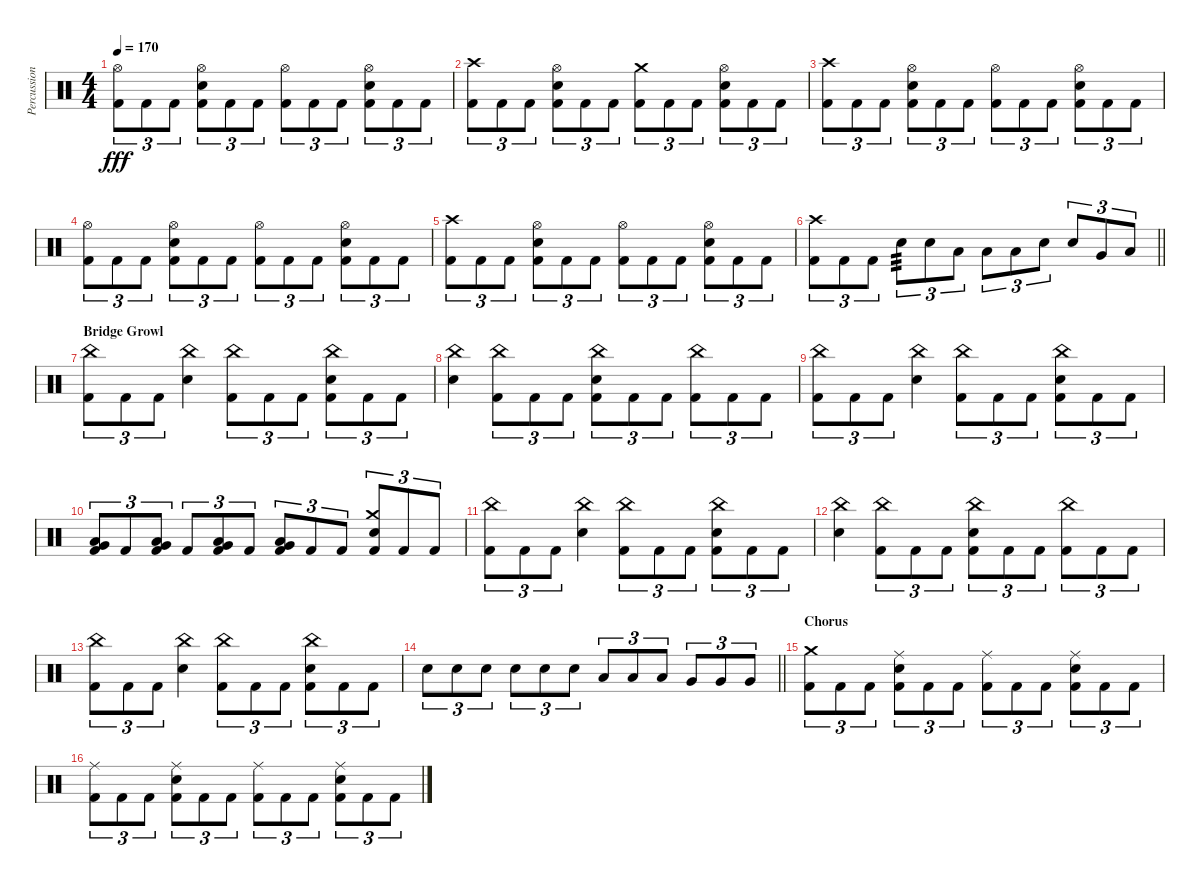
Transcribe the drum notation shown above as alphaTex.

\track ("Percussion" "Percussion") {instrument percussion}
\staff {score}
\articulation defaults
\ts (4 4)
\tempo 170
\clef neutral
\ks c
("Hi-Hat (open)" "Kick (hit) 2").8{tu (3 2) dy fff} "Kick (hit) 2".8{tu (3 2)} "Kick (hit) 2".8{tu (3 2)} ("Hi-Hat (open)" "Snare (hit) 2" "Kick (hit) 2").8{tu (3 2)} "Kick (hit) 2".8{tu (3 2)} "Kick (hit) 2".8{tu (3 2)} ("Hi-Hat (open)" "Kick (hit) 2").8{tu (3 2)} "Kick (hit) 2".8{tu (3 2)} "Kick (hit) 2".8{tu (3 2)} ("Hi-Hat (open)" "Snare (hit) 2" "Kick (hit) 2").8{tu (3 2)} "Kick (hit) 2".8{tu (3 2)} "Kick (hit) 2".8{tu (3 2)} |
("Crash high (hit)" "Kick (hit) 2").8{tu (3 2)} "Kick (hit) 2".8{tu (3 2)} "Kick (hit) 2".8{tu (3 2)} ("Hi-Hat (open)" "Snare (hit) 2" "Kick (hit) 2").8{tu (3 2)} "Kick (hit) 2".8{tu (3 2)} "Kick (hit) 2".8{tu (3 2)} ("Crash medium (hit)" "Kick (hit) 2").8{tu (3 2)} "Kick (hit) 2".8{tu (3 2)} "Kick (hit) 2".8{tu (3 2)} ("Hi-Hat (open)" "Snare (hit) 2" "Kick (hit) 2").8{tu (3 2)} "Kick (hit) 2".8{tu (3 2)} "Kick (hit) 2".8{tu (3 2)} |
("Crash high (hit)" "Kick (hit) 2").8{tu (3 2)} "Kick (hit) 2".8{tu (3 2)} "Kick (hit) 2".8{tu (3 2)} ("Hi-Hat (open)" "Snare (hit) 2" "Kick (hit) 2").8{tu (3 2)} "Kick (hit) 2".8{tu (3 2)} "Kick (hit) 2".8{tu (3 2)} ("Hi-Hat (open)" "Kick (hit) 2").8{tu (3 2)} "Kick (hit) 2".8{tu (3 2)} "Kick (hit) 2".8{tu (3 2)} ("Hi-Hat (open)" "Snare (hit) 2" "Kick (hit) 2").8{tu (3 2)} "Kick (hit) 2".8{tu (3 2)} "Kick (hit) 2".8{tu (3 2)} |
("Hi-Hat (open)" "Kick (hit) 2").8{tu (3 2)} "Kick (hit) 2".8{tu (3 2)} "Kick (hit) 2".8{tu (3 2)} ("Hi-Hat (open)" "Snare (hit) 2" "Kick (hit) 2").8{tu (3 2)} "Kick (hit) 2".8{tu (3 2)} "Kick (hit) 2".8{tu (3 2)} ("Hi-Hat (open)" "Kick (hit) 2").8{tu (3 2)} "Kick (hit) 2".8{tu (3 2)} "Kick (hit) 2".8{tu (3 2)} ("Hi-Hat (open)" "Snare (hit) 2" "Kick (hit) 2").8{tu (3 2)} "Kick (hit) 2".8{tu (3 2)} "Kick (hit) 2".8{tu (3 2)} |
("Crash high (hit)" "Kick (hit) 2").8{tu (3 2)} "Kick (hit) 2".8{tu (3 2)} "Kick (hit) 2".8{tu (3 2)} ("Hi-Hat (open)" "Snare (hit) 2" "Kick (hit) 2").8{tu (3 2)} "Kick (hit) 2".8{tu (3 2)} "Kick (hit) 2".8{tu (3 2)} ("Hi-Hat (open)" "Kick (hit) 2").8{tu (3 2)} "Kick (hit) 2".8{tu (3 2)} "Kick (hit) 2".8{tu (3 2)} ("Hi-Hat (open)" "Snare (hit) 2" "Kick (hit) 2").8{tu (3 2)} "Kick (hit) 2".8{tu (3 2)} "Kick (hit) 2".8{tu (3 2)} |
\barLineRight lightlight
("Crash high (hit)" "Kick (hit) 2").8{tu (3 2)} "Kick (hit) 2".8{tu (3 2)} "Kick (hit) 2".8{tu (3 2)} "Electric Snare (hit)".8{tu (3 2) tp 3} "Electric Snare (hit)".8{tu (3 2)} "Low Tom (hit)".8{tu (3 2)} "Low Tom (hit)".8{tu (3 2)} "Low Tom (hit)".8{tu (3 2)} "Electric Snare (hit)".8{tu (3 2)} "Electric Snare (hit)".8{tu (3 2)} "Very Low Tom (hit)".8{tu (3 2)} "Low Tom (hit)".8{tu (3 2)} |
\section ("" "Bridge Growl")
("China (hit)" "Kick (hit) 2").8{tu (3 2)} "Kick (hit) 2".8{tu (3 2)} "Kick (hit) 2".8{tu (3 2)} ("China (hit)" "Electric Snare (hit)").4 ("China (hit)" "Kick (hit) 2").8{tu (3 2)} "Kick (hit) 2".8{tu (3 2)} "Kick (hit) 2".8{tu (3 2)} ("China (hit)" "Electric Snare (hit)" "Kick (hit) 2").8{tu (3 2)} "Kick (hit) 2".8{tu (3 2)} "Kick (hit) 2".8{tu (3 2)} |
("China (hit)" "Electric Snare (hit)").4 ("China (hit)" "Kick (hit) 2").8{tu (3 2)} "Kick (hit) 2".8{tu (3 2)} "Kick (hit) 2".8{tu (3 2)} ("China (hit)" "Electric Snare (hit)" "Kick (hit) 2").8{tu (3 2)} "Kick (hit) 2".8{tu (3 2)} "Kick (hit) 2".8{tu (3 2)} ("China (hit)" "Kick (hit) 2").8{tu (3 2)} "Kick (hit) 2".8{tu (3 2)} "Kick (hit) 2".8{tu (3 2)} |
("China (hit)" "Kick (hit) 2").8{tu (3 2)} "Kick (hit) 2".8{tu (3 2)} "Kick (hit) 2".8{tu (3 2)} ("China (hit)" "Electric Snare (hit)").4 ("China (hit)" "Kick (hit) 2").8{tu (3 2)} "Kick (hit) 2".8{tu (3 2)} "Kick (hit) 2".8{tu (3 2)} ("China (hit)" "Electric Snare (hit)" "Kick (hit) 2").8{tu (3 2)} "Kick (hit) 2".8{tu (3 2)} "Kick (hit) 2".8{tu (3 2)} |
("Low Floor Tom (hit)" "Very Low Tom (hit)" "Kick (hit) 2").8{tu (3 2)} "Kick (hit) 2".8{tu (3 2)} ("Very Low Tom (hit)" "Low Floor Tom (hit)" "Kick (hit) 2").8{tu (3 2)} "Kick (hit) 2".8{tu (3 2)} ("Very Low Tom (hit)" "Low Floor Tom (hit)" "Kick (hit) 2").8{tu (3 2)} "Kick (hit) 2".8{tu (3 2)} ("Very Low Tom (hit)" "Low Floor Tom (hit)" "Kick (hit) 2").8{tu (3 2)} "Kick (hit) 2".8{tu (3 2)} "Kick (hit) 2".8{tu (3 2)} ("Crash medium (hit)" "Electric Snare (hit)" "Kick (hit) 2").8{tu (3 2)} "Kick (hit) 2".8{tu (3 2)} "Kick (hit) 2".8{tu (3 2)} |
("China (hit)" "Kick (hit) 2").8{tu (3 2)} "Kick (hit) 2".8{tu (3 2)} "Kick (hit) 2".8{tu (3 2)} ("China (hit)" "Electric Snare (hit)").4 ("China (hit)" "Kick (hit) 2").8{tu (3 2)} "Kick (hit) 2".8{tu (3 2)} "Kick (hit) 2".8{tu (3 2)} ("China (hit)" "Electric Snare (hit)" "Kick (hit) 2").8{tu (3 2)} "Kick (hit) 2".8{tu (3 2)} "Kick (hit) 2".8{tu (3 2)} |
("China (hit)" "Electric Snare (hit)").4 ("China (hit)" "Kick (hit) 2").8{tu (3 2)} "Kick (hit) 2".8{tu (3 2)} "Kick (hit) 2".8{tu (3 2)} ("China (hit)" "Electric Snare (hit)" "Kick (hit) 2").8{tu (3 2)} "Kick (hit) 2".8{tu (3 2)} "Kick (hit) 2".8{tu (3 2)} ("China (hit)" "Kick (hit) 2").8{tu (3 2)} "Kick (hit) 2".8{tu (3 2)} "Kick (hit) 2".8{tu (3 2)} |
("China (hit)" "Kick (hit) 2").8{tu (3 2)} "Kick (hit) 2".8{tu (3 2)} "Kick (hit) 2".8{tu (3 2)} ("China (hit)" "Electric Snare (hit)").4 ("China (hit)" "Kick (hit) 2").8{tu (3 2)} "Kick (hit) 2".8{tu (3 2)} "Kick (hit) 2".8{tu (3 2)} ("China (hit)" "Electric Snare (hit)" "Kick (hit) 2").8{tu (3 2)} "Kick (hit) 2".8{tu (3 2)} "Kick (hit) 2".8{tu (3 2)} |
\barLineRight lightlight "Electric Snare (hit)".8{tu (3 2)} "Electric Snare (hit)".8{tu (3 2)} "Electric Snare (hit)".8{tu (3 2)} "Electric Snare (hit)".8{tu (3 2)} "Electric Snare (hit)".8{tu (3 2)} "Electric Snare (hit)".8{tu (3 2)} "Low Tom (hit)".8{tu (3 2)} "Low Tom (hit)".8{tu (3 2)} "Low Tom (hit)".8{tu (3 2)} "Very Low Tom (hit)".8{tu (3 2)} "Very Low Tom (hit)".8{tu (3 2)} "Very Low Tom (hit)".8{tu (3 2)}
|
\section ("" "Chorus")
("Crash medium (hit)" "Kick (hit) 2").8{tu (3 2)} "Kick (hit) 2".8{tu (3 2)} "Kick (hit) 2".8{tu (3 2)} ("Ride (middle)" "Snare (hit) 2" "Kick (hit) 2").8{tu (3 2)} "Kick (hit) 2".8{tu (3 2)} "Kick (hit) 2".8{tu (3 2)} ("Ride (middle)" "Kick (hit) 2").8{tu (3 2)} "Kick (hit) 2".8{tu (3 2)} "Kick (hit) 2".8{tu (3 2)} ("Ride (middle)" "Snare (hit) 2" "Kick (hit) 2").8{tu (3 2)} "Kick (hit) 2".8{tu (3 2)} "Kick (hit) 2".8{tu (3 2)} |
("Ride (middle)" "Kick (hit) 2").8{tu (3 2)} "Kick (hit) 2".8{tu (3 2)} "Kick (hit) 2".8{tu (3 2)} ("Ride (middle)" "Snare (hit) 2" "Kick (hit) 2").8{tu (3 2)} "Kick (hit) 2".8{tu (3 2)} "Kick (hit) 2".8{tu (3 2)} ("Ride (middle)" "Kick (hit) 2").8{tu (3 2)} "Kick (hit) 2".8{tu (3 2)} "Kick (hit) 2".8{tu (3 2)} ("Ride (middle)" "Snare (hit) 2" "Kick (hit) 2").8{tu (3 2)} "Kick (hit) 2".8{tu (3 2)} "Kick (hit) 2".8{tu (3 2)}
